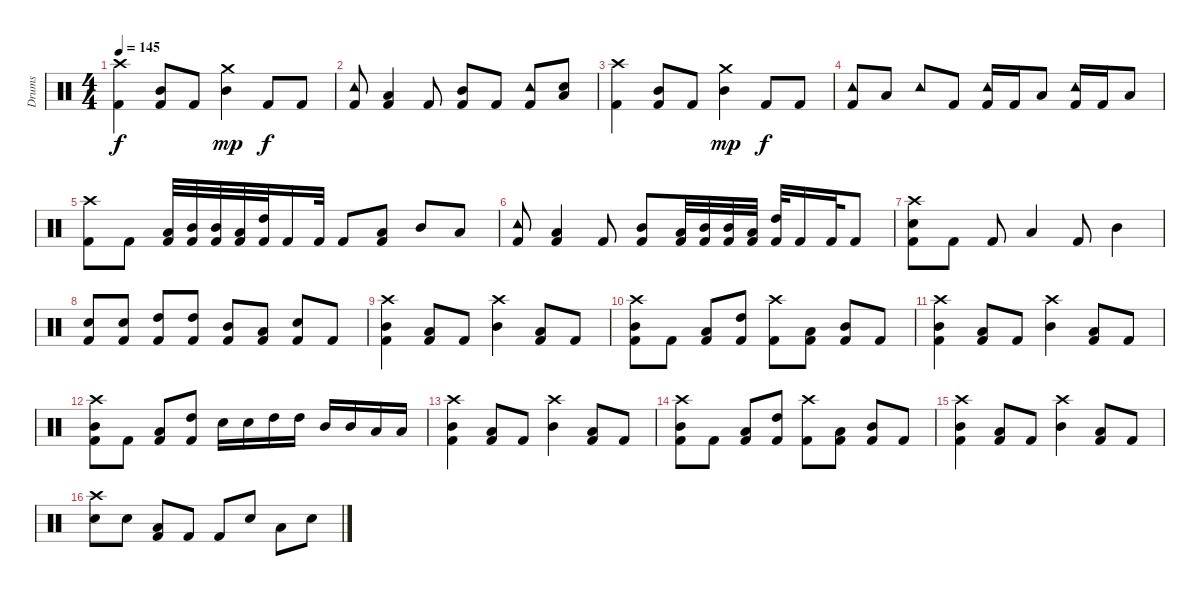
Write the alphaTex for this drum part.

\track ("Drums" "Drums") {instrument percussion}
\staff {score}
\articulation defaults
\ts (4 4)
\tempo 145
\clef neutral
\ks c
("Crash high (hit)" "Kick (hit) 2").4{dy f} ("Mid Tom (hit)" "Kick (hit) 2").8 "Kick (hit) 2".8 ("Crash medium (hit)" "Mid Tom (hit)").4{dy mp} "Kick (hit) 2".8{dy f} "Kick (hit) 2".8 |
("Tambourine (hit)" "Kick (hit) 2").8 ("Low Tom (hit)" "Kick (hit) 2").4 "Kick (hit) 2".8 ("Mid Tom (hit)" "Kick (hit) 2").8 "Kick (hit) 2".8 ("Tambourine (hit)" "Kick (hit) 2").8 ("Electric Snare (hit)" "Low Tom (hit)").8 |
("Crash high (hit)" "Kick (hit) 2").4 ("Mid Tom (hit)" "Kick (hit) 2").8 "Kick (hit) 2".8 ("Crash medium (hit)" "Mid Tom (hit)").4{dy mp} "Kick (hit) 2".8{dy f} "Kick (hit) 2".8 |
("Tambourine (hit)" "Kick (hit) 2").8 "Low Tom (hit)".8 "Tambourine (hit)".8 "Kick (hit) 2".8 ("Tambourine (hit)" "Kick (hit) 2").16 "Kick (hit) 2".16 "Low Tom (hit)".8 ("Tambourine (hit)" "Kick (hit) 2").16 "Kick (hit) 2".16 "Low Tom (hit)".8 |
("Crash high (hit)" "Kick (hit) 2").8 "Kick (hit) 2".8 ("Low Tom (hit)" "Kick (hit) 2").32 ("Mid Tom (hit)" "Kick (hit) 2").32 ("Mid Tom (hit)" "Kick (hit) 2").32 ("Low Tom (hit)" "Kick (hit) 2").32 ("High Tom (hit)" "Kick (hit) 2").32 "Kick (hit) 2".16 "Kick (hit) 2".32 "Kick (hit) 2".8 ("Low Tom (hit)" "Kick (hit) 2").8 "Mid Tom (hit)".8 "Low Tom (hit)".8 |
("Tambourine (hit)" "Kick (hit) 2").8 ("Low Tom (hit)" "Kick (hit) 2").4 "Kick (hit) 2".8 ("Mid Tom (hit)" "Kick (hit) 2").8 ("Low Tom (hit)" "Kick (hit) 2").32 ("Mid Tom (hit)" "Kick (hit) 2").32 ("Mid Tom (hit)" "Kick (hit) 2").32 ("Low Tom (hit)" "Kick (hit) 2").32 ("High Tom (hit)" "Kick (hit) 2").32 "Kick (hit) 2".16 "Kick (hit) 2".32 "Kick (hit) 2".8 |
("Crash high (hit)" "Electric Snare (hit)" "Kick (hit) 2").8 "Kick (hit) 2".8 "Kick (hit) 2".8 "Low Tom (hit)".4 "Kick (hit) 2".8 "Mid Tom (hit)".4 |
("Electric Snare (hit)" "Kick (hit) 2").8 ("Electric Snare (hit)" "Kick (hit) 2").8 ("High Tom (hit)" "Kick (hit) 2").8 ("High Tom (hit)" "Kick (hit) 2").8 ("Mid Tom (hit)" "Kick (hit) 2").8 ("Low Tom (hit)" "Kick (hit) 2").8 ("Electric Snare (hit)" "Kick (hit) 2").8 "Kick (hit) 2".8 |
("Crash high (hit)" "Mid Tom (hit)" "Kick (hit) 2").4 ("Low Tom (hit)" "Kick (hit) 2").8 "Kick (hit) 2".8 ("Crash high (hit)" "Mid Tom (hit)").4 ("Low Tom (hit)" "Kick (hit) 2").8 "Kick (hit) 2".8 |
("Crash high (hit)" "Mid Tom (hit)" "Kick (hit) 2").8 "Kick (hit) 2".8 ("Low Tom (hit)" "Kick (hit) 2").8 ("High Tom (hit)" "Kick (hit) 2").8 ("Crash high (hit)" "Kick (hit) 2").8 ("Low Tom (hit)" "Kick (hit) 2").8 ("Mid Tom (hit)" "Kick (hit) 2").8 "Kick (hit) 2".8 |
("Crash high (hit)" "Mid Tom (hit)" "Kick (hit) 2").4 ("Low Tom (hit)" "Kick (hit) 2").8 "Kick (hit) 2".8 ("Crash high (hit)" "Mid Tom (hit)").4 ("Low Tom (hit)" "Kick (hit) 2").8 "Kick (hit) 2".8 |
("Crash high (hit)" "Mid Tom (hit)" "Kick (hit) 2").8 "Kick (hit) 2".8 ("Low Tom (hit)" "Kick (hit) 2").8 ("High Tom (hit)" "Kick (hit) 2").8 "Electric Snare (hit)".16 "Electric Snare (hit)".16 "High Tom (hit)".16 "High Tom (hit)".16 "Mid Tom (hit)".16 "Mid Tom (hit)".16 "Low Tom (hit)".16 "Low Tom (hit)".16 |
("Crash high (hit)" "Mid Tom (hit)" "Kick (hit) 2").4 ("Low Tom (hit)" "Kick (hit) 2").8 "Kick (hit) 2".8 ("Crash high (hit)" "Mid Tom (hit)").4 ("Low Tom (hit)" "Kick (hit) 2").8 "Kick (hit) 2".8 |
("Crash high (hit)" "Mid Tom (hit)" "Kick (hit) 2").8 "Kick (hit) 2".8 ("Low Tom (hit)" "Kick (hit) 2").8 ("High Tom (hit)" "Kick (hit) 2").8 ("Crash high (hit)" "Kick (hit) 2").8 ("Low Tom (hit)" "Kick (hit) 2").8 ("Mid Tom (hit)" "Kick (hit) 2").8 "Kick (hit) 2".8 |
("Crash high (hit)" "Mid Tom (hit)" "Kick (hit) 2").4 ("Low Tom (hit)" "Kick (hit) 2").8 "Kick (hit) 2".8 ("Crash high (hit)" "Mid Tom (hit)").4 ("Low Tom (hit)" "Kick (hit) 2").8 "Kick (hit) 2".8 |
("Crash high (hit)" "Electric Snare (hit)").8 "Electric Snare (hit)".8 ("Low Tom (hit)" "Kick (hit) 2").8 "Kick (hit) 2".8 "Kick (hit) 2".8 "Electric Snare (hit)".8 "Low Tom (hit)".8 "Electric Snare (hit)".8
